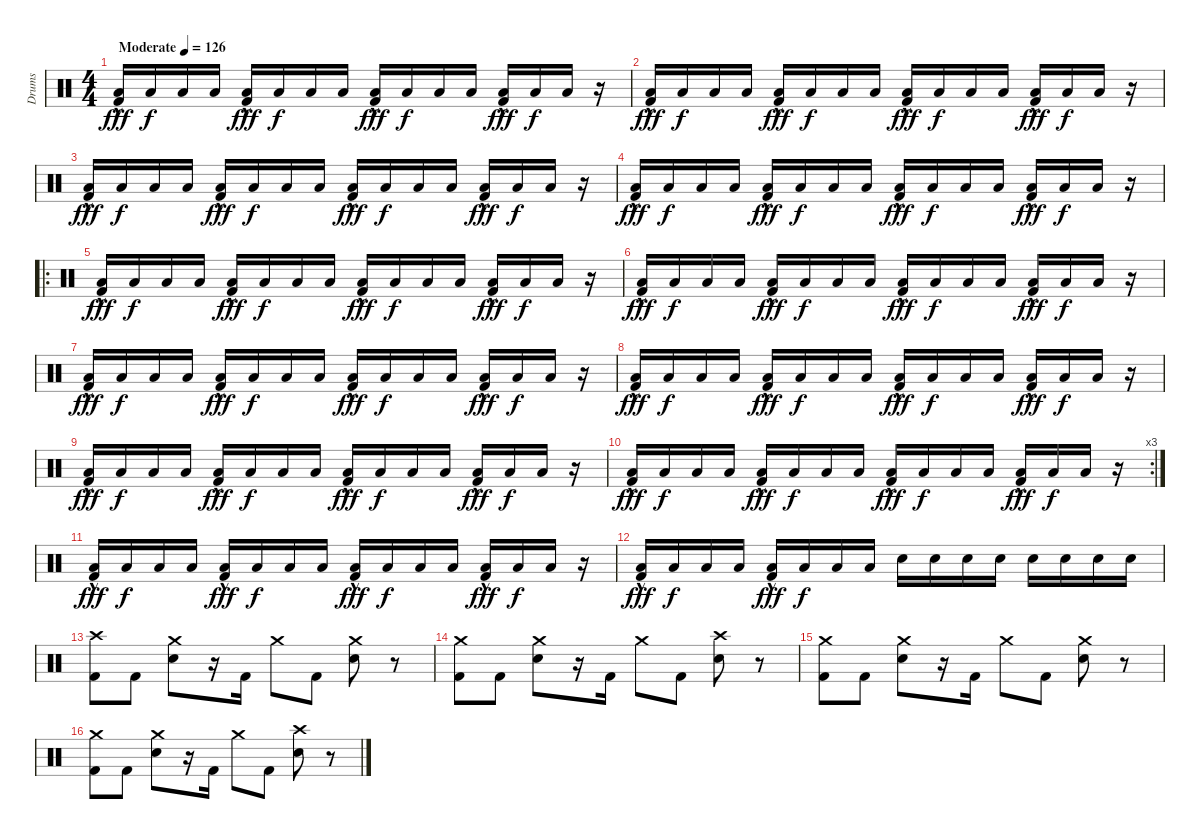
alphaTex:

\track ("Drums" "Drums") {instrument percussion}
\staff {score}
\articulation defaults
\ts (4 4)
\tempo (126 "Moderate")
\clef neutral
\ks c
("Low Tom (hit)"{hac} "Kick (hit) 2").16{dy fff} "Low Tom (hit)".16{dy f} "Low Tom (hit)".16 "Low Tom (hit)".16 ("Low Tom (hit)"{hac} "Kick (hit) 2").16{dy fff} "Low Tom (hit)".16{dy f} "Low Tom (hit)".16 "Low Tom (hit)".16 ("Low Tom (hit)"{hac} "Kick (hit) 2").16{dy fff} "Low Tom (hit)".16{dy f} "Low Tom (hit)".16 "Low Tom (hit)".16 ("Low Tom (hit)"{hac} "Kick (hit) 2").16{dy fff} "Low Tom (hit)".16{dy f} "Low Tom (hit)".16 r.16 |
("Low Tom (hit)"{hac} "Kick (hit) 2").16{dy fff} "Low Tom (hit)".16{dy f} "Low Tom (hit)".16 "Low Tom (hit)".16 ("Low Tom (hit)"{hac} "Kick (hit) 2").16{dy fff} "Low Tom (hit)".16{dy f} "Low Tom (hit)".16 "Low Tom (hit)".16 ("Low Tom (hit)"{hac} "Kick (hit) 2").16{dy fff} "Low Tom (hit)".16{dy f} "Low Tom (hit)".16 "Low Tom (hit)".16 ("Low Tom (hit)"{hac} "Kick (hit) 2").16{dy fff} "Low Tom (hit)".16{dy f} "Low Tom (hit)".16 r.16 |
("Low Tom (hit)"{hac} "Kick (hit) 2").16{dy fff} "Low Tom (hit)".16{dy f} "Low Tom (hit)".16 "Low Tom (hit)".16 ("Low Tom (hit)"{hac} "Kick (hit) 2").16{dy fff} "Low Tom (hit)".16{dy f} "Low Tom (hit)".16 "Low Tom (hit)".16 ("Low Tom (hit)"{hac} "Kick (hit) 2").16{dy fff} "Low Tom (hit)".16{dy f} "Low Tom (hit)".16 "Low Tom (hit)".16 ("Low Tom (hit)"{hac} "Kick (hit) 2").16{dy fff} "Low Tom (hit)".16{dy f} "Low Tom (hit)".16 r.16 |
("Low Tom (hit)"{hac} "Kick (hit) 2").16{dy fff} "Low Tom (hit)".16{dy f} "Low Tom (hit)".16 "Low Tom (hit)".16 ("Low Tom (hit)"{hac} "Kick (hit) 2").16{dy fff} "Low Tom (hit)".16{dy f} "Low Tom (hit)".16 "Low Tom (hit)".16 ("Low Tom (hit)"{hac} "Kick (hit) 2").16{dy fff} "Low Tom (hit)".16{dy f} "Low Tom (hit)".16 "Low Tom (hit)".16 ("Low Tom (hit)"{hac} "Kick (hit) 2").16{dy fff} "Low Tom (hit)".16{dy f} "Low Tom (hit)".16 r.16 |
\ro
("Low Tom (hit)"{hac} "Kick (hit) 2").16{dy fff} "Low Tom (hit)".16{dy f} "Low Tom (hit)".16 "Low Tom (hit)".16 ("Low Tom (hit)"{hac} "Kick (hit) 2").16{dy fff} "Low Tom (hit)".16{dy f} "Low Tom (hit)".16 "Low Tom (hit)".16 ("Low Tom (hit)"{hac} "Kick (hit) 2").16{dy fff} "Low Tom (hit)".16{dy f} "Low Tom (hit)".16 "Low Tom (hit)".16 ("Low Tom (hit)"{hac} "Kick (hit) 2").16{dy fff} "Low Tom (hit)".16{dy f} "Low Tom (hit)".16 r.16 |
("Low Tom (hit)"{hac} "Kick (hit) 2").16{dy fff} "Low Tom (hit)".16{dy f} "Low Tom (hit)".16 "Low Tom (hit)".16 ("Low Tom (hit)"{hac} "Kick (hit) 2").16{dy fff} "Low Tom (hit)".16{dy f} "Low Tom (hit)".16 "Low Tom (hit)".16 ("Low Tom (hit)"{hac} "Kick (hit) 2").16{dy fff} "Low Tom (hit)".16{dy f} "Low Tom (hit)".16 "Low Tom (hit)".16 ("Low Tom (hit)"{hac} "Kick (hit) 2").16{dy fff} "Low Tom (hit)".16{dy f} "Low Tom (hit)".16 r.16 |
("Low Tom (hit)"{hac} "Kick (hit) 2").16{dy fff} "Low Tom (hit)".16{dy f} "Low Tom (hit)".16 "Low Tom (hit)".16 ("Low Tom (hit)"{hac} "Kick (hit) 2").16{dy fff} "Low Tom (hit)".16{dy f} "Low Tom (hit)".16 "Low Tom (hit)".16 ("Low Tom (hit)"{hac} "Kick (hit) 2").16{dy fff} "Low Tom (hit)".16{dy f} "Low Tom (hit)".16 "Low Tom (hit)".16 ("Low Tom (hit)"{hac} "Kick (hit) 2").16{dy fff} "Low Tom (hit)".16{dy f} "Low Tom (hit)".16 r.16 |
("Low Tom (hit)"{hac} "Kick (hit) 2").16{dy fff} "Low Tom (hit)".16{dy f} "Low Tom (hit)".16 "Low Tom (hit)".16 ("Low Tom (hit)"{hac} "Kick (hit) 2").16{dy fff} "Low Tom (hit)".16{dy f} "Low Tom (hit)".16 "Low Tom (hit)".16 ("Low Tom (hit)"{hac} "Kick (hit) 2").16{dy fff} "Low Tom (hit)".16{dy f} "Low Tom (hit)".16 "Low Tom (hit)".16 ("Low Tom (hit)"{hac} "Kick (hit) 2").16{dy fff} "Low Tom (hit)".16{dy f} "Low Tom (hit)".16 r.16 |
("Low Tom (hit)"{hac} "Kick (hit) 2").16{dy fff} "Low Tom (hit)".16{dy f} "Low Tom (hit)".16 "Low Tom (hit)".16 ("Low Tom (hit)"{hac} "Kick (hit) 2").16{dy fff} "Low Tom (hit)".16{dy f} "Low Tom (hit)".16 "Low Tom (hit)".16 ("Low Tom (hit)"{hac} "Kick (hit) 2").16{dy fff} "Low Tom (hit)".16{dy f} "Low Tom (hit)".16 "Low Tom (hit)".16 ("Low Tom (hit)"{hac} "Kick (hit) 2").16{dy fff} "Low Tom (hit)".16{dy f} "Low Tom (hit)".16 r.16 |
\rc 3
("Low Tom (hit)"{hac} "Kick (hit) 2").16{dy fff} "Low Tom (hit)".16{dy f} "Low Tom (hit)".16 "Low Tom (hit)".16 ("Low Tom (hit)"{hac} "Kick (hit) 2").16{dy fff} "Low Tom (hit)".16{dy f} "Low Tom (hit)".16 "Low Tom (hit)".16 ("Low Tom (hit)"{hac} "Kick (hit) 2").16{dy fff} "Low Tom (hit)".16{dy f} "Low Tom (hit)".16 "Low Tom (hit)".16 ("Low Tom (hit)"{hac} "Kick (hit) 2").16{dy fff} "Low Tom (hit)".16{dy f} "Low Tom (hit)".16 r.16 |
("Low Tom (hit)"{hac} "Kick (hit) 2").16{dy fff} "Low Tom (hit)".16{dy f} "Low Tom (hit)".16 "Low Tom (hit)".16 ("Low Tom (hit)"{hac} "Kick (hit) 2").16{dy fff} "Low Tom (hit)".16{dy f} "Low Tom (hit)".16 "Low Tom (hit)".16 ("Low Tom (hit)"{hac} "Kick (hit) 2").16{dy fff} "Low Tom (hit)".16{dy f} "Low Tom (hit)".16 "Low Tom (hit)".16 ("Low Tom (hit)"{hac} "Kick (hit) 2").16{dy fff} "Low Tom (hit)".16{dy f} "Low Tom (hit)".16 r.16 |
("Low Tom (hit)"{hac} "Kick (hit) 2").16{dy fff} "Low Tom (hit)".16{dy f} "Low Tom (hit)".16 "Low Tom (hit)".16 ("Low Tom (hit)"{hac} "Kick (hit) 2").16{dy fff} "Low Tom (hit)".16{dy f} "Low Tom (hit)".16 "Low Tom (hit)".16 "Electric Snare (hit)".16{volume 16} "Electric Snare (hit)".16 "Electric Snare (hit)".16 "Electric Snare (hit)".16 "Electric Snare (hit)".16 "Electric Snare (hit)".16 "Electric Snare (hit)".16 "Electric Snare (hit)".16 |
("Crash high (hit)" "Kick (hit) 2").8{volume 12} "Kick (hit) 2".8 ("Crash medium (hit)" "Electric Snare (hit)").8 r.16 "Kick (hit) 2".16 "Crash medium (hit)".8 "Kick (hit) 2".8 ("Crash medium (hit)" "Electric Snare (hit)").8 r.8 |
("Crash medium (hit)" "Kick (hit) 2").8 "Kick (hit) 2".8 ("Crash medium (hit)" "Electric Snare (hit)").8 r.16 "Kick (hit) 2".16 "Crash medium (hit)".8 "Kick (hit) 2".8 ("Crash high (hit)" "Electric Snare (hit)").8 r.8 |
("Crash medium (hit)" "Kick (hit) 2").8 "Kick (hit) 2".8 ("Crash medium (hit)" "Electric Snare (hit)").8 r.16 "Kick (hit) 2".16 "Crash medium (hit)".8 "Kick (hit) 2".8 ("Crash medium (hit)" "Electric Snare (hit)").8 r.8 |
("Crash medium (hit)" "Kick (hit) 2").8 "Kick (hit) 2".8 ("Crash medium (hit)" "Electric Snare (hit)").8 r.16 "Kick (hit) 2".16 "Crash medium (hit)".8 "Kick (hit) 2".8 ("Crash high (hit)" "Electric Snare (hit)").8 r.8
